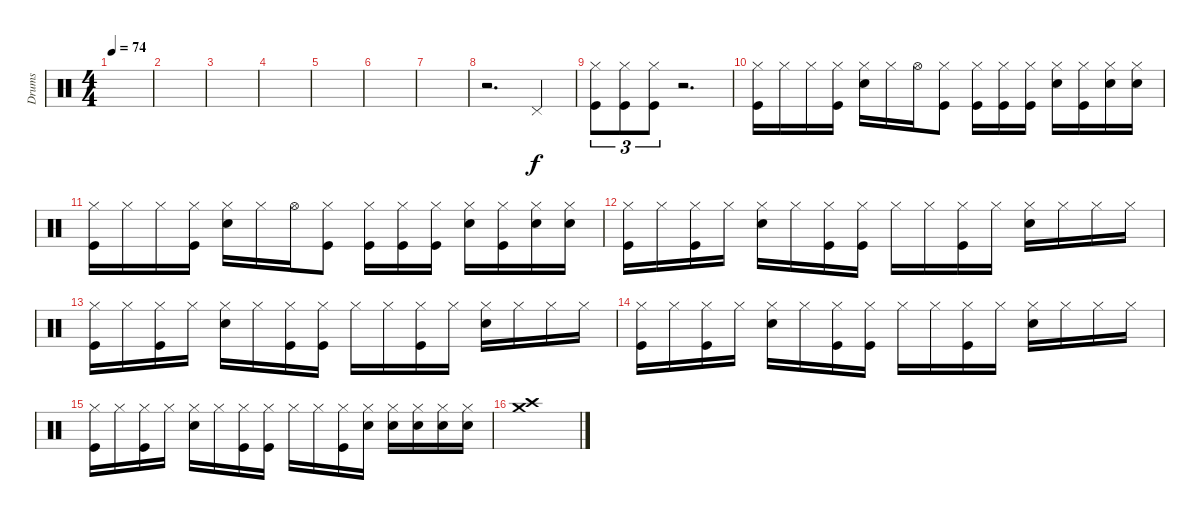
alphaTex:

\track ("Drums" "Drums") {instrument percussion}
\staff {score}
\articulation defaults
\ts (4 4)
\tempo 74
\clef neutral
\ks c
|
|
|
|
|
|
|
r.2{d} "Pedal Hi-Hat (hit)".4 |
("Kick (hit)" "Hi-Hat (closed)").8{tu (3 2)} ("Kick (hit)" "Hi-Hat (closed)").8{tu (3 2)} ("Kick (hit)" "Hi-Hat (closed)").8{tu (3 2)} r.2{d} |
("Kick (hit)" "Hi-Hat (closed)").16 "Hi-Hat (closed)".16 "Hi-Hat (closed)".16 ("Kick (hit)" "Hi-Hat (closed)").16 ("Snare (hit) 2" "Hi-Hat (closed)").16 "Hi-Hat (closed)".16 "Hi-Hat (open)".16 ("Kick (hit)" "Hi-Hat (closed)").8 ("Hi-Hat (closed)" "Kick (hit)").16 ("Hi-Hat (closed)" "Kick (hit)").16 ("Kick (hit)" "Hi-Hat (closed)").16 ("Snare (hit) 2" "Hi-Hat (closed)").16 ("Kick (hit)" "Hi-Hat (closed)").16 ("Snare (hit) 2" "Hi-Hat (closed)").16 ("Snare (hit) 2" "Hi-Hat (closed)").16 |
("Kick (hit)" "Hi-Hat (closed)").16 "Hi-Hat (closed)".16 "Hi-Hat (closed)".16 ("Kick (hit)" "Hi-Hat (closed)").16 ("Snare (hit) 2" "Hi-Hat (closed)").16 "Hi-Hat (closed)".16 "Hi-Hat (open)".16 ("Kick (hit)" "Hi-Hat (closed)").8 ("Hi-Hat (closed)" "Kick (hit)").16 ("Hi-Hat (closed)" "Kick (hit)").16 ("Kick (hit)" "Hi-Hat (closed)").16 ("Snare (hit) 2" "Hi-Hat (closed)").16 ("Kick (hit)" "Hi-Hat (closed)").16 ("Snare (hit) 2" "Hi-Hat (closed)").16 ("Snare (hit) 2" "Hi-Hat (closed)").16 |
("Kick (hit)" "Hi-Hat (closed)").16 "Hi-Hat (closed)".16 ("Hi-Hat (closed)" "Kick (hit)").16 "Hi-Hat (closed)".16 ("Snare (hit) 2" "Hi-Hat (closed)").16 "Hi-Hat (closed)".16 ("Hi-Hat (closed)" "Kick (hit)").16 ("Hi-Hat (closed)" "Kick (hit)").16 "Hi-Hat (closed)".16 "Hi-Hat (closed)".16 ("Hi-Hat (closed)" "Kick (hit)").16 "Hi-Hat (closed)".16 ("Hi-Hat (closed)" "Snare (hit) 2").16 "Hi-Hat (closed)".16 "Hi-Hat (closed)".16 "Hi-Hat (closed)".16 |
("Kick (hit)" "Hi-Hat (closed)").16 "Hi-Hat (closed)".16 ("Hi-Hat (closed)" "Kick (hit)").16 "Hi-Hat (closed)".16 ("Snare (hit) 2" "Hi-Hat (closed)").16 "Hi-Hat (closed)".16 ("Hi-Hat (closed)" "Kick (hit)").16 ("Hi-Hat (closed)" "Kick (hit)").16 "Hi-Hat (closed)".16 "Hi-Hat (closed)".16 ("Hi-Hat (closed)" "Kick (hit)").16 "Hi-Hat (closed)".16 ("Hi-Hat (closed)" "Snare (hit) 2").16 "Hi-Hat (closed)".16 "Hi-Hat (closed)".16 "Hi-Hat (closed)".16 |
("Kick (hit)" "Hi-Hat (closed)").16 "Hi-Hat (closed)".16 ("Hi-Hat (closed)" "Kick (hit)").16 "Hi-Hat (closed)".16 ("Snare (hit) 2" "Hi-Hat (closed)").16 "Hi-Hat (closed)".16 ("Hi-Hat (closed)" "Kick (hit)").16 ("Hi-Hat (closed)" "Kick (hit)").16 "Hi-Hat (closed)".16 "Hi-Hat (closed)".16 ("Hi-Hat (closed)" "Kick (hit)").16 "Hi-Hat (closed)".16 ("Hi-Hat (closed)" "Snare (hit) 2").16 "Hi-Hat (closed)".16 "Hi-Hat (closed)".16 "Hi-Hat (closed)".16 |
("Kick (hit)" "Hi-Hat (closed)").16 "Hi-Hat (closed)".16 ("Hi-Hat (closed)" "Kick (hit)").16 "Hi-Hat (closed)".16 ("Snare (hit) 2" "Hi-Hat (closed)").16 "Hi-Hat (closed)".16 ("Hi-Hat (closed)" "Kick (hit)").16 ("Hi-Hat (closed)" "Kick (hit)").16 "Hi-Hat (closed)".16 "Hi-Hat (closed)".16 ("Hi-Hat (closed)" "Kick (hit)").16 ("Hi-Hat (closed)" "Snare (hit) 2").16 ("Hi-Hat (closed)" "Snare (hit) 2").16 ("Hi-Hat (closed)" "Snare (hit) 2").16 ("Hi-Hat (closed)" "Snare (hit) 2").16 ("Hi-Hat (closed)" "Snare (hit) 2").16 |
("Crash high (hit)" "Crash medium (hit)").1
